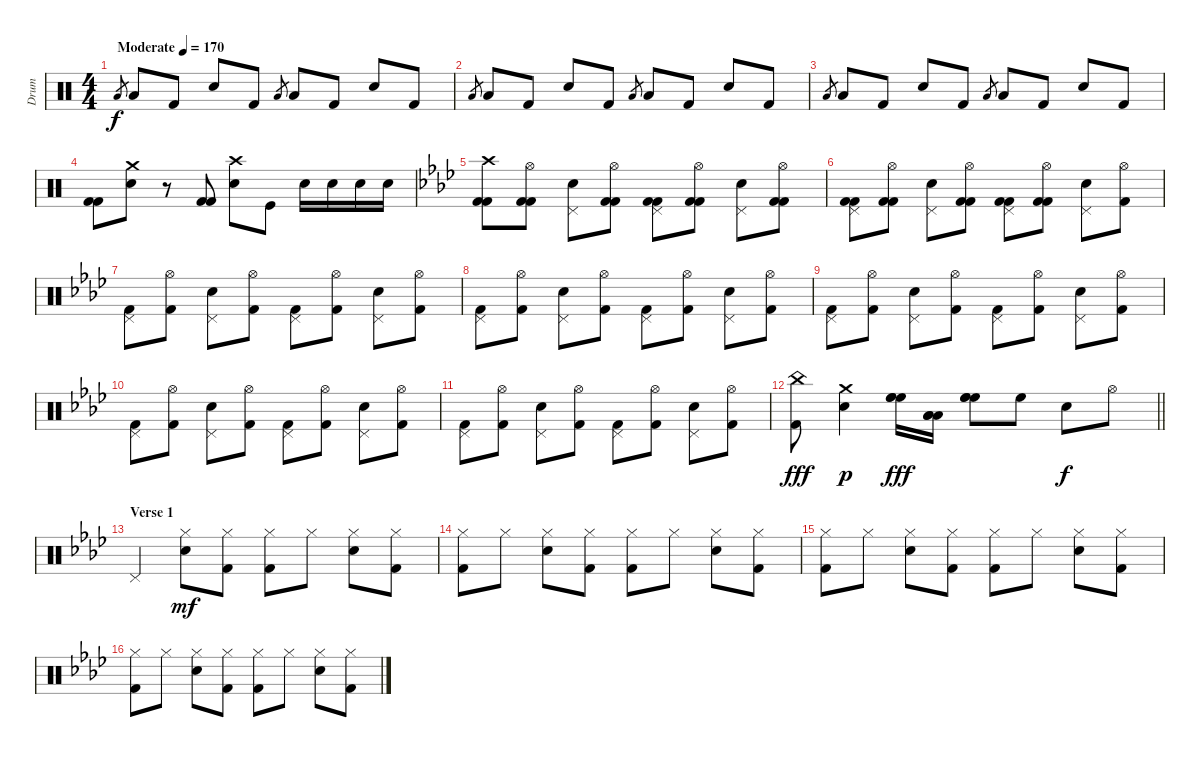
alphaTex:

\track ("Drum" "Drum") {instrument percussion}
\staff {score}
\articulation defaults
\ts (4 4)
\tempo (170 "Moderate")
\clef neutral
\ks c "Low Tom (hit)".8{gr dy f} "Low Floor Tom (hit)".8 "Kick (hit) 2".8 "Electric Snare (hit)".8 "Kick (hit) 2".8 "Low Tom (hit)".8{gr} "Low Floor Tom (hit)".8 "Kick (hit) 2".8 "Electric Snare (hit)".8 "Kick (hit) 2".8
|
"Low Tom (hit)".8{gr} "Low Floor Tom (hit)".8 "Kick (hit) 2".8 "Electric Snare (hit)".8 "Kick (hit) 2".8 "Low Tom (hit)".8{gr} "Low Floor Tom (hit)".8 "Kick (hit) 2".8 "Electric Snare (hit)".8 "Kick (hit) 2".8 |
"Low Tom (hit)".8{gr} "Low Floor Tom (hit)".8 "Kick (hit) 2".8 "Electric Snare (hit)".8 "Kick (hit) 2".8 "Low Tom (hit)".8{gr} "Low Floor Tom (hit)".8 "Kick (hit) 2".8 "Electric Snare (hit)".8 "Kick (hit) 2".8 |
("Kick (hit) 2" "Kick (hit) 2").8 ("Crash medium (hit)" "Electric Snare (hit)").8 r.8 ("Kick (hit) 2" "Kick (hit) 2").8 ("Crash high (hit)" "Electric Snare (hit)").8 "Kick (hit)".8 "Electric Snare (hit)".16 "Electric Snare (hit)".16 "Electric Snare (hit)".16 "Electric Snare (hit)".16 |
\ks ab
("Crash high (hit)" "Kick (hit) 2" "Kick (hit) 2").8 ("Hi-Hat (open)" "Kick (hit) 2" "Kick (hit) 2").8 ("Pedal Hi-Hat (hit)" "Electric Snare (hit)").8 ("Hi-Hat (open)" "Kick (hit) 2" "Kick (hit) 2").8 ("Pedal Hi-Hat (hit)" "Kick (hit) 2" "Kick (hit) 2").8 ("Hi-Hat (open)" "Kick (hit) 2" "Kick (hit) 2").8 ("Pedal Hi-Hat (hit)" "Electric Snare (hit)").8 ("Hi-Hat (open)" "Kick (hit) 2" "Kick (hit) 2").8 |
("Pedal Hi-Hat (hit)" "Kick (hit) 2" "Kick (hit) 2").8 ("Hi-Hat (open)" "Kick (hit) 2" "Kick (hit) 2").8 ("Pedal Hi-Hat (hit)" "Electric Snare (hit)").8 ("Hi-Hat (open)" "Kick (hit) 2" "Kick (hit) 2").8 ("Pedal Hi-Hat (hit)" "Kick (hit) 2" "Kick (hit) 2").8 ("Hi-Hat (open)" "Kick (hit) 2" "Kick (hit) 2").8 ("Pedal Hi-Hat (hit)" "Electric Snare (hit)").8 ("Hi-Hat (open)" "Kick (hit) 2").8 |
("Pedal Hi-Hat (hit)" "Kick (hit) 2").8 ("Hi-Hat (open)" "Kick (hit) 2").8 ("Pedal Hi-Hat (hit)" "Electric Snare (hit)").8 ("Hi-Hat (open)" "Kick (hit) 2").8 ("Pedal Hi-Hat (hit)" "Kick (hit) 2").8 ("Hi-Hat (open)" "Kick (hit) 2").8 ("Pedal Hi-Hat (hit)" "Electric Snare (hit)").8 ("Hi-Hat (open)" "Kick (hit) 2").8 |
("Pedal Hi-Hat (hit)" "Kick (hit) 2").8 ("Hi-Hat (open)" "Kick (hit) 2").8 ("Pedal Hi-Hat (hit)" "Electric Snare (hit)").8 ("Hi-Hat (open)" "Kick (hit) 2").8 ("Pedal Hi-Hat (hit)" "Kick (hit) 2").8 ("Hi-Hat (open)" "Kick (hit) 2").8 ("Pedal Hi-Hat (hit)" "Electric Snare (hit)").8 ("Hi-Hat (open)" "Kick (hit) 2").8 |
("Pedal Hi-Hat (hit)" "Kick (hit) 2").8 ("Hi-Hat (open)" "Kick (hit) 2").8 ("Pedal Hi-Hat (hit)" "Electric Snare (hit)").8 ("Hi-Hat (open)" "Kick (hit) 2").8 ("Pedal Hi-Hat (hit)" "Kick (hit) 2").8 ("Hi-Hat (open)" "Kick (hit) 2").8 ("Pedal Hi-Hat (hit)" "Electric Snare (hit)").8 ("Hi-Hat (open)" "Kick (hit) 2").8 |
("Pedal Hi-Hat (hit)" "Kick (hit) 2").8 ("Hi-Hat (open)" "Kick (hit) 2").8 ("Pedal Hi-Hat (hit)" "Electric Snare (hit)").8 ("Hi-Hat (open)" "Kick (hit) 2").8 ("Pedal Hi-Hat (hit)" "Kick (hit) 2").8 ("Hi-Hat (open)" "Kick (hit) 2").8 ("Pedal Hi-Hat (hit)" "Electric Snare (hit)").8 ("Hi-Hat (open)" "Kick (hit) 2").8 |
("Pedal Hi-Hat (hit)" "Kick (hit) 2").8 ("Hi-Hat (open)" "Kick (hit) 2").8 ("Pedal Hi-Hat (hit)" "Electric Snare (hit)").8 ("Hi-Hat (open)" "Kick (hit) 2").8 ("Pedal Hi-Hat (hit)" "Kick (hit) 2").8 ("Hi-Hat (open)" "Kick (hit) 2").8 ("Pedal Hi-Hat (hit)" "Electric Snare (hit)").8 ("Hi-Hat (open)" "Kick (hit) 2").8 |
\barLineRight lightlight
("China (hit)" "Kick (hit) 2").8{dy fff} ("Crash medium (hit)" "Electric Snare (hit)").4{dy p} ("High Floor Tom (hit)" "High Floor Tom (hit)" "High Floor Tom (hit)").16{dy fff} ("Low Tom (hit)" "Low Tom (hit)" "Low Tom (hit)").16 ("High Floor Tom (hit)" "High Floor Tom (hit)" "High Floor Tom (hit)").8 "High Floor Tom (hit)".8 "Electric Snare (hit)".8{dy f} "Hi-Hat (open)".8 |
\section ("" "Verse 1")
"Pedal Hi-Hat (hit)".4 ("Hi-Hat (closed)" "Electric Snare (hit)").8{dy mf} ("Hi-Hat (closed)" "Kick (hit) 2").8 ("Hi-Hat (closed)" "Kick (hit) 2").8 "Hi-Hat (closed)".8 ("Hi-Hat (closed)" "Electric Snare (hit)").8 ("Hi-Hat (closed)" "Kick (hit) 2").8 |
("Hi-Hat (closed)" "Kick (hit) 2").8 "Hi-Hat (closed)".8 ("Hi-Hat (closed)" "Electric Snare (hit)").8 ("Hi-Hat (closed)" "Kick (hit) 2").8 ("Hi-Hat (closed)" "Kick (hit) 2").8 "Hi-Hat (closed)".8 ("Hi-Hat (closed)" "Electric Snare (hit)").8 ("Hi-Hat (closed)" "Kick (hit) 2").8 |
("Hi-Hat (closed)" "Kick (hit) 2").8 "Hi-Hat (closed)".8 ("Hi-Hat (closed)" "Electric Snare (hit)").8 ("Hi-Hat (closed)" "Kick (hit) 2").8 ("Hi-Hat (closed)" "Kick (hit) 2").8 "Hi-Hat (closed)".8 ("Hi-Hat (closed)" "Electric Snare (hit)").8 ("Hi-Hat (closed)" "Kick (hit) 2").8 |
("Hi-Hat (closed)" "Kick (hit) 2").8 "Hi-Hat (closed)".8 ("Hi-Hat (closed)" "Electric Snare (hit)").8 ("Hi-Hat (closed)" "Kick (hit) 2").8 ("Hi-Hat (closed)" "Kick (hit) 2").8 "Hi-Hat (closed)".8 ("Hi-Hat (closed)" "Electric Snare (hit)").8 ("Hi-Hat (closed)" "Kick (hit) 2").8
